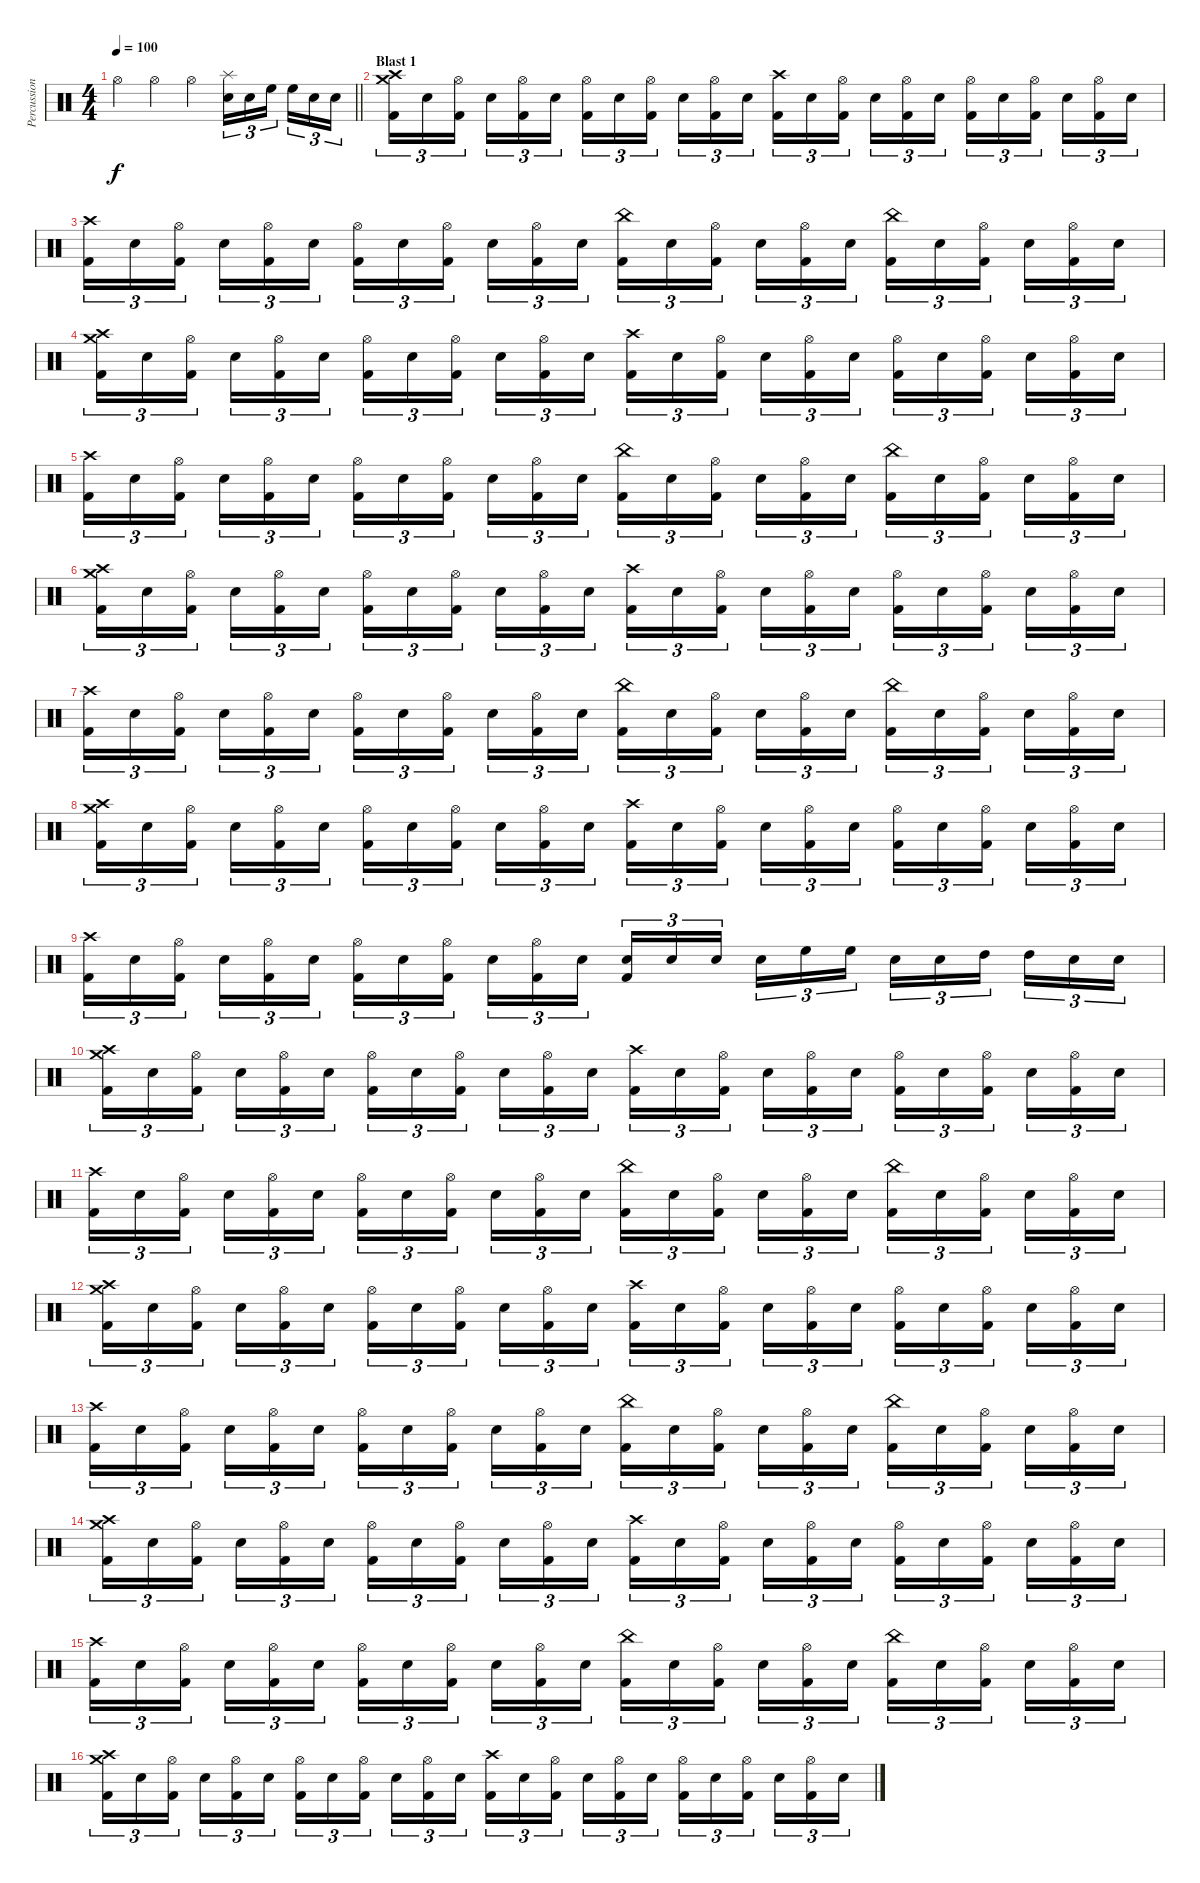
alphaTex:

\track ("Percussion" "Percussion") {instrument percussion}
\staff {score}
\articulation defaults
\ts (4 4)
\tempo 100
\clef neutral
\barLineRight lightlight
\ks c "Hi-Hat (open)".4{dy f} "Hi-Hat (open)".4 "Hi-Hat (open)".4
("Splash (hit)" "Electric Snare (hit)").16{tu (3 2)} "Electric Snare (hit)".16{tu (3 2)} "High Floor Tom (hit)".16{tu (3 2) beam splitsecondary} "High Floor Tom (hit)".16{tu (3 2)} "Electric Snare (hit)".16{tu (3 2)} "Electric Snare (hit)".16{tu (3 2)} |
\section ("" "Blast 1")
("Crash medium (hit)" "Crash high (hit)" "Kick (hit) 2").16{tu (3 2)} "Electric Snare (hit)".16{tu (3 2)} ("Hi-Hat (open)" "Kick (hit) 2").16{tu (3 2) beam splitsecondary} "Electric Snare (hit)".16{tu (3 2)} ("Hi-Hat (open)" "Kick (hit) 2").16{tu (3 2)} "Electric Snare (hit)".16{tu (3 2)} ("Hi-Hat (open)" "Kick (hit) 2").16{tu (3 2)} "Electric Snare (hit)".16{tu (3 2)} ("Hi-Hat (open)" "Kick (hit) 2").16{tu (3 2) beam splitsecondary} "Electric Snare (hit)".16{tu (3 2)} ("Hi-Hat (open)" "Kick (hit) 2").16{tu (3 2)} "Electric Snare (hit)".16{tu (3 2)} ("Crash high (hit)" "Kick (hit) 2").16{tu (3 2)} "Electric Snare (hit)".16{tu (3 2)} ("Hi-Hat (open)" "Kick (hit) 2").16{tu (3 2) beam splitsecondary} "Electric Snare (hit)".16{tu (3 2)} ("Hi-Hat (open)" "Kick (hit) 2").16{tu (3 2)} "Electric Snare (hit)".16{tu (3 2)} ("Hi-Hat (open)" "Kick (hit) 2").16{tu (3 2)} "Electric Snare (hit)".16{tu (3 2)} ("Hi-Hat (open)" "Kick (hit) 2").16{tu (3 2) beam splitsecondary} "Electric Snare (hit)".16{tu (3 2)} ("Hi-Hat (open)" "Kick (hit) 2").16{tu (3 2)} "Electric Snare (hit)".16{tu (3 2)} |
("Crash high (hit)" "Kick (hit) 2").16{tu (3 2)} "Electric Snare (hit)".16{tu (3 2)} ("Hi-Hat (open)" "Kick (hit) 2").16{tu (3 2) beam splitsecondary} "Electric Snare (hit)".16{tu (3 2)} ("Hi-Hat (open)" "Kick (hit) 2").16{tu (3 2)} "Electric Snare (hit)".16{tu (3 2)} ("Hi-Hat (open)" "Kick (hit) 2").16{tu (3 2)} "Electric Snare (hit)".16{tu (3 2)} ("Hi-Hat (open)" "Kick (hit) 2").16{tu (3 2) beam splitsecondary} "Electric Snare (hit)".16{tu (3 2)} ("Hi-Hat (open)" "Kick (hit) 2").16{tu (3 2)} "Electric Snare (hit)".16{tu (3 2)} ("China (hit)" "Kick (hit) 2").16{tu (3 2)} "Electric Snare (hit)".16{tu (3 2)} ("Hi-Hat (open)" "Kick (hit) 2").16{tu (3 2) beam splitsecondary} "Electric Snare (hit)".16{tu (3 2)} ("Hi-Hat (open)" "Kick (hit) 2").16{tu (3 2)} "Electric Snare (hit)".16{tu (3 2)} ("China (hit)" "Kick (hit) 2").16{tu (3 2)} "Electric Snare (hit)".16{tu (3 2)} ("Hi-Hat (open)" "Kick (hit) 2").16{tu (3 2) beam splitsecondary} "Electric Snare (hit)".16{tu (3 2)} ("Hi-Hat (open)" "Kick (hit) 2").16{tu (3 2)} "Electric Snare (hit)".16{tu (3 2)} |
("Crash medium (hit)" "Crash high (hit)" "Kick (hit) 2").16{tu (3 2)} "Electric Snare (hit)".16{tu (3 2)} ("Hi-Hat (open)" "Kick (hit) 2").16{tu (3 2) beam splitsecondary} "Electric Snare (hit)".16{tu (3 2)} ("Hi-Hat (open)" "Kick (hit) 2").16{tu (3 2)} "Electric Snare (hit)".16{tu (3 2)} ("Hi-Hat (open)" "Kick (hit) 2").16{tu (3 2)} "Electric Snare (hit)".16{tu (3 2)} ("Hi-Hat (open)" "Kick (hit) 2").16{tu (3 2) beam splitsecondary} "Electric Snare (hit)".16{tu (3 2)} ("Hi-Hat (open)" "Kick (hit) 2").16{tu (3 2)} "Electric Snare (hit)".16{tu (3 2)} ("Crash high (hit)" "Kick (hit) 2").16{tu (3 2)} "Electric Snare (hit)".16{tu (3 2)} ("Hi-Hat (open)" "Kick (hit) 2").16{tu (3 2) beam splitsecondary} "Electric Snare (hit)".16{tu (3 2)} ("Hi-Hat (open)" "Kick (hit) 2").16{tu (3 2)} "Electric Snare (hit)".16{tu (3 2)} ("Hi-Hat (open)" "Kick (hit) 2").16{tu (3 2)} "Electric Snare (hit)".16{tu (3 2)} ("Hi-Hat (open)" "Kick (hit) 2").16{tu (3 2) beam splitsecondary} "Electric Snare (hit)".16{tu (3 2)} ("Hi-Hat (open)" "Kick (hit) 2").16{tu (3 2)} "Electric Snare (hit)".16{tu (3 2)} |
("Crash high (hit)" "Kick (hit) 2").16{tu (3 2)} "Electric Snare (hit)".16{tu (3 2)} ("Hi-Hat (open)" "Kick (hit) 2").16{tu (3 2) beam splitsecondary} "Electric Snare (hit)".16{tu (3 2)} ("Hi-Hat (open)" "Kick (hit) 2").16{tu (3 2)} "Electric Snare (hit)".16{tu (3 2)} ("Hi-Hat (open)" "Kick (hit) 2").16{tu (3 2)} "Electric Snare (hit)".16{tu (3 2)} ("Hi-Hat (open)" "Kick (hit) 2").16{tu (3 2) beam splitsecondary} "Electric Snare (hit)".16{tu (3 2)} ("Hi-Hat (open)" "Kick (hit) 2").16{tu (3 2)} "Electric Snare (hit)".16{tu (3 2)} ("China (hit)" "Kick (hit) 2").16{tu (3 2)} "Electric Snare (hit)".16{tu (3 2)} ("Hi-Hat (open)" "Kick (hit) 2").16{tu (3 2) beam splitsecondary} "Electric Snare (hit)".16{tu (3 2)} ("Hi-Hat (open)" "Kick (hit) 2").16{tu (3 2)} "Electric Snare (hit)".16{tu (3 2)} ("China (hit)" "Kick (hit) 2").16{tu (3 2)} "Electric Snare (hit)".16{tu (3 2)} ("Hi-Hat (open)" "Kick (hit) 2").16{tu (3 2) beam splitsecondary} "Electric Snare (hit)".16{tu (3 2)} ("Hi-Hat (open)" "Kick (hit) 2").16{tu (3 2)} "Electric Snare (hit)".16{tu (3 2)} |
("Crash medium (hit)" "Crash high (hit)" "Kick (hit) 2").16{tu (3 2)} "Electric Snare (hit)".16{tu (3 2)} ("Hi-Hat (open)" "Kick (hit) 2").16{tu (3 2) beam splitsecondary} "Electric Snare (hit)".16{tu (3 2)} ("Hi-Hat (open)" "Kick (hit) 2").16{tu (3 2)} "Electric Snare (hit)".16{tu (3 2)} ("Hi-Hat (open)" "Kick (hit) 2").16{tu (3 2)} "Electric Snare (hit)".16{tu (3 2)} ("Hi-Hat (open)" "Kick (hit) 2").16{tu (3 2) beam splitsecondary} "Electric Snare (hit)".16{tu (3 2)} ("Hi-Hat (open)" "Kick (hit) 2").16{tu (3 2)} "Electric Snare (hit)".16{tu (3 2)} ("Crash high (hit)" "Kick (hit) 2").16{tu (3 2)} "Electric Snare (hit)".16{tu (3 2)} ("Hi-Hat (open)" "Kick (hit) 2").16{tu (3 2) beam splitsecondary} "Electric Snare (hit)".16{tu (3 2)} ("Hi-Hat (open)" "Kick (hit) 2").16{tu (3 2)} "Electric Snare (hit)".16{tu (3 2)} ("Hi-Hat (open)" "Kick (hit) 2").16{tu (3 2)} "Electric Snare (hit)".16{tu (3 2)} ("Hi-Hat (open)" "Kick (hit) 2").16{tu (3 2) beam splitsecondary} "Electric Snare (hit)".16{tu (3 2)} ("Hi-Hat (open)" "Kick (hit) 2").16{tu (3 2)} "Electric Snare (hit)".16{tu (3 2)} |
("Crash high (hit)" "Kick (hit) 2").16{tu (3 2)} "Electric Snare (hit)".16{tu (3 2)} ("Hi-Hat (open)" "Kick (hit) 2").16{tu (3 2) beam splitsecondary} "Electric Snare (hit)".16{tu (3 2)} ("Hi-Hat (open)" "Kick (hit) 2").16{tu (3 2)} "Electric Snare (hit)".16{tu (3 2)} ("Hi-Hat (open)" "Kick (hit) 2").16{tu (3 2)} "Electric Snare (hit)".16{tu (3 2)} ("Hi-Hat (open)" "Kick (hit) 2").16{tu (3 2) beam splitsecondary} "Electric Snare (hit)".16{tu (3 2)} ("Hi-Hat (open)" "Kick (hit) 2").16{tu (3 2)} "Electric Snare (hit)".16{tu (3 2)} ("China (hit)" "Kick (hit) 2").16{tu (3 2)} "Electric Snare (hit)".16{tu (3 2)} ("Hi-Hat (open)" "Kick (hit) 2").16{tu (3 2) beam splitsecondary} "Electric Snare (hit)".16{tu (3 2)} ("Hi-Hat (open)" "Kick (hit) 2").16{tu (3 2)} "Electric Snare (hit)".16{tu (3 2)} ("China (hit)" "Kick (hit) 2").16{tu (3 2)} "Electric Snare (hit)".16{tu (3 2)} ("Hi-Hat (open)" "Kick (hit) 2").16{tu (3 2) beam splitsecondary} "Electric Snare (hit)".16{tu (3 2)} ("Hi-Hat (open)" "Kick (hit) 2").16{tu (3 2)} "Electric Snare (hit)".16{tu (3 2)} |
("Crash medium (hit)" "Crash high (hit)" "Kick (hit) 2").16{tu (3 2)} "Electric Snare (hit)".16{tu (3 2)} ("Hi-Hat (open)" "Kick (hit) 2").16{tu (3 2) beam splitsecondary} "Electric Snare (hit)".16{tu (3 2)} ("Hi-Hat (open)" "Kick (hit) 2").16{tu (3 2)} "Electric Snare (hit)".16{tu (3 2)} ("Hi-Hat (open)" "Kick (hit) 2").16{tu (3 2)} "Electric Snare (hit)".16{tu (3 2)} ("Hi-Hat (open)" "Kick (hit) 2").16{tu (3 2) beam splitsecondary} "Electric Snare (hit)".16{tu (3 2)} ("Hi-Hat (open)" "Kick (hit) 2").16{tu (3 2)} "Electric Snare (hit)".16{tu (3 2)} ("Crash high (hit)" "Kick (hit) 2").16{tu (3 2)} "Electric Snare (hit)".16{tu (3 2)} ("Hi-Hat (open)" "Kick (hit) 2").16{tu (3 2) beam splitsecondary} "Electric Snare (hit)".16{tu (3 2)} ("Hi-Hat (open)" "Kick (hit) 2").16{tu (3 2)} "Electric Snare (hit)".16{tu (3 2)} ("Hi-Hat (open)" "Kick (hit) 2").16{tu (3 2)} "Electric Snare (hit)".16{tu (3 2)} ("Hi-Hat (open)" "Kick (hit) 2").16{tu (3 2) beam splitsecondary} "Electric Snare (hit)".16{tu (3 2)} ("Hi-Hat (open)" "Kick (hit) 2").16{tu (3 2)} "Electric Snare (hit)".16{tu (3 2)} |
("Crash high (hit)" "Kick (hit) 2").16{tu (3 2)} "Electric Snare (hit)".16{tu (3 2)} ("Hi-Hat (open)" "Kick (hit) 2").16{tu (3 2) beam splitsecondary} "Electric Snare (hit)".16{tu (3 2)} ("Hi-Hat (open)" "Kick (hit) 2").16{tu (3 2)} "Electric Snare (hit)".16{tu (3 2)} ("Hi-Hat (open)" "Kick (hit) 2").16{tu (3 2)} "Electric Snare (hit)".16{tu (3 2)} ("Hi-Hat (open)" "Kick (hit) 2").16{tu (3 2) beam splitsecondary} "Electric Snare (hit)".16{tu (3 2)} ("Hi-Hat (open)" "Kick (hit) 2").16{tu (3 2)} "Electric Snare (hit)".16{tu (3 2)} ("Electric Snare (hit)" "Kick (hit) 2").16{tu (3 2)} "Electric Snare (hit)".16{tu (3 2)} "Electric Snare (hit)".16{tu (3 2) beam splitsecondary} "Electric Snare (hit)".16{tu (3 2)} "High Floor Tom (hit)".16{tu (3 2)} "High Floor Tom (hit)".16{tu (3 2)} "Electric Snare (hit)".16{tu (3 2)} "Electric Snare (hit)".16{tu (3 2)} "High Tom (hit)".16{tu (3 2) beam splitsecondary} "High Tom (hit)".16{tu (3 2)} "Electric Snare (hit)".16{tu (3 2)} "Electric Snare (hit)".16{tu (3 2)} |
("Crash medium (hit)" "Crash high (hit)" "Kick (hit) 2").16{tu (3 2)} "Electric Snare (hit)".16{tu (3 2)} ("Hi-Hat (open)" "Kick (hit) 2").16{tu (3 2) beam splitsecondary} "Electric Snare (hit)".16{tu (3 2)} ("Hi-Hat (open)" "Kick (hit) 2").16{tu (3 2)} "Electric Snare (hit)".16{tu (3 2)} ("Hi-Hat (open)" "Kick (hit) 2").16{tu (3 2)} "Electric Snare (hit)".16{tu (3 2)} ("Hi-Hat (open)" "Kick (hit) 2").16{tu (3 2) beam splitsecondary} "Electric Snare (hit)".16{tu (3 2)} ("Hi-Hat (open)" "Kick (hit) 2").16{tu (3 2)} "Electric Snare (hit)".16{tu (3 2)} ("Crash high (hit)" "Kick (hit) 2").16{tu (3 2)} "Electric Snare (hit)".16{tu (3 2)} ("Hi-Hat (open)" "Kick (hit) 2").16{tu (3 2) beam splitsecondary} "Electric Snare (hit)".16{tu (3 2)} ("Hi-Hat (open)" "Kick (hit) 2").16{tu (3 2)} "Electric Snare (hit)".16{tu (3 2)} ("Hi-Hat (open)" "Kick (hit) 2").16{tu (3 2)} "Electric Snare (hit)".16{tu (3 2)} ("Hi-Hat (open)" "Kick (hit) 2").16{tu (3 2) beam splitsecondary} "Electric Snare (hit)".16{tu (3 2)} ("Hi-Hat (open)" "Kick (hit) 2").16{tu (3 2)} "Electric Snare (hit)".16{tu (3 2)} |
("Crash high (hit)" "Kick (hit) 2").16{tu (3 2)} "Electric Snare (hit)".16{tu (3 2)} ("Hi-Hat (open)" "Kick (hit) 2").16{tu (3 2) beam splitsecondary} "Electric Snare (hit)".16{tu (3 2)} ("Hi-Hat (open)" "Kick (hit) 2").16{tu (3 2)} "Electric Snare (hit)".16{tu (3 2)} ("Hi-Hat (open)" "Kick (hit) 2").16{tu (3 2)} "Electric Snare (hit)".16{tu (3 2)} ("Hi-Hat (open)" "Kick (hit) 2").16{tu (3 2) beam splitsecondary} "Electric Snare (hit)".16{tu (3 2)} ("Hi-Hat (open)" "Kick (hit) 2").16{tu (3 2)} "Electric Snare (hit)".16{tu (3 2)} ("China (hit)" "Kick (hit) 2").16{tu (3 2)} "Electric Snare (hit)".16{tu (3 2)} ("Hi-Hat (open)" "Kick (hit) 2").16{tu (3 2) beam splitsecondary} "Electric Snare (hit)".16{tu (3 2)} ("Hi-Hat (open)" "Kick (hit) 2").16{tu (3 2)} "Electric Snare (hit)".16{tu (3 2)} ("China (hit)" "Kick (hit) 2").16{tu (3 2)} "Electric Snare (hit)".16{tu (3 2)} ("Hi-Hat (open)" "Kick (hit) 2").16{tu (3 2) beam splitsecondary} "Electric Snare (hit)".16{tu (3 2)} ("Hi-Hat (open)" "Kick (hit) 2").16{tu (3 2)} "Electric Snare (hit)".16{tu (3 2)} |
("Crash medium (hit)" "Crash high (hit)" "Kick (hit) 2").16{tu (3 2)} "Electric Snare (hit)".16{tu (3 2)} ("Hi-Hat (open)" "Kick (hit) 2").16{tu (3 2) beam splitsecondary} "Electric Snare (hit)".16{tu (3 2)} ("Hi-Hat (open)" "Kick (hit) 2").16{tu (3 2)} "Electric Snare (hit)".16{tu (3 2)} ("Hi-Hat (open)" "Kick (hit) 2").16{tu (3 2)} "Electric Snare (hit)".16{tu (3 2)} ("Hi-Hat (open)" "Kick (hit) 2").16{tu (3 2) beam splitsecondary} "Electric Snare (hit)".16{tu (3 2)} ("Hi-Hat (open)" "Kick (hit) 2").16{tu (3 2)} "Electric Snare (hit)".16{tu (3 2)} ("Crash high (hit)" "Kick (hit) 2").16{tu (3 2)} "Electric Snare (hit)".16{tu (3 2)} ("Hi-Hat (open)" "Kick (hit) 2").16{tu (3 2) beam splitsecondary} "Electric Snare (hit)".16{tu (3 2)} ("Hi-Hat (open)" "Kick (hit) 2").16{tu (3 2)} "Electric Snare (hit)".16{tu (3 2)} ("Hi-Hat (open)" "Kick (hit) 2").16{tu (3 2)} "Electric Snare (hit)".16{tu (3 2)} ("Hi-Hat (open)" "Kick (hit) 2").16{tu (3 2) beam splitsecondary} "Electric Snare (hit)".16{tu (3 2)} ("Hi-Hat (open)" "Kick (hit) 2").16{tu (3 2)} "Electric Snare (hit)".16{tu (3 2)} |
("Crash high (hit)" "Kick (hit) 2").16{tu (3 2)} "Electric Snare (hit)".16{tu (3 2)} ("Hi-Hat (open)" "Kick (hit) 2").16{tu (3 2) beam splitsecondary} "Electric Snare (hit)".16{tu (3 2)} ("Hi-Hat (open)" "Kick (hit) 2").16{tu (3 2)} "Electric Snare (hit)".16{tu (3 2)} ("Hi-Hat (open)" "Kick (hit) 2").16{tu (3 2)} "Electric Snare (hit)".16{tu (3 2)} ("Hi-Hat (open)" "Kick (hit) 2").16{tu (3 2) beam splitsecondary} "Electric Snare (hit)".16{tu (3 2)} ("Hi-Hat (open)" "Kick (hit) 2").16{tu (3 2)} "Electric Snare (hit)".16{tu (3 2)} ("China (hit)" "Kick (hit) 2").16{tu (3 2)} "Electric Snare (hit)".16{tu (3 2)} ("Hi-Hat (open)" "Kick (hit) 2").16{tu (3 2) beam splitsecondary} "Electric Snare (hit)".16{tu (3 2)} ("Hi-Hat (open)" "Kick (hit) 2").16{tu (3 2)} "Electric Snare (hit)".16{tu (3 2)} ("China (hit)" "Kick (hit) 2").16{tu (3 2)} "Electric Snare (hit)".16{tu (3 2)} ("Hi-Hat (open)" "Kick (hit) 2").16{tu (3 2) beam splitsecondary} "Electric Snare (hit)".16{tu (3 2)} ("Hi-Hat (open)" "Kick (hit) 2").16{tu (3 2)} "Electric Snare (hit)".16{tu (3 2)} |
("Crash medium (hit)" "Crash high (hit)" "Kick (hit) 2").16{tu (3 2)} "Electric Snare (hit)".16{tu (3 2)} ("Hi-Hat (open)" "Kick (hit) 2").16{tu (3 2) beam splitsecondary} "Electric Snare (hit)".16{tu (3 2)} ("Hi-Hat (open)" "Kick (hit) 2").16{tu (3 2)} "Electric Snare (hit)".16{tu (3 2)} ("Hi-Hat (open)" "Kick (hit) 2").16{tu (3 2)} "Electric Snare (hit)".16{tu (3 2)} ("Hi-Hat (open)" "Kick (hit) 2").16{tu (3 2) beam splitsecondary} "Electric Snare (hit)".16{tu (3 2)} ("Hi-Hat (open)" "Kick (hit) 2").16{tu (3 2)} "Electric Snare (hit)".16{tu (3 2)} ("Crash high (hit)" "Kick (hit) 2").16{tu (3 2)} "Electric Snare (hit)".16{tu (3 2)} ("Hi-Hat (open)" "Kick (hit) 2").16{tu (3 2) beam splitsecondary} "Electric Snare (hit)".16{tu (3 2)} ("Hi-Hat (open)" "Kick (hit) 2").16{tu (3 2)} "Electric Snare (hit)".16{tu (3 2)} ("Hi-Hat (open)" "Kick (hit) 2").16{tu (3 2)} "Electric Snare (hit)".16{tu (3 2)} ("Hi-Hat (open)" "Kick (hit) 2").16{tu (3 2) beam splitsecondary} "Electric Snare (hit)".16{tu (3 2)} ("Hi-Hat (open)" "Kick (hit) 2").16{tu (3 2)} "Electric Snare (hit)".16{tu (3 2)} |
("Crash high (hit)" "Kick (hit) 2").16{tu (3 2)} "Electric Snare (hit)".16{tu (3 2)} ("Hi-Hat (open)" "Kick (hit) 2").16{tu (3 2) beam splitsecondary} "Electric Snare (hit)".16{tu (3 2)} ("Hi-Hat (open)" "Kick (hit) 2").16{tu (3 2)} "Electric Snare (hit)".16{tu (3 2)} ("Hi-Hat (open)" "Kick (hit) 2").16{tu (3 2)} "Electric Snare (hit)".16{tu (3 2)} ("Hi-Hat (open)" "Kick (hit) 2").16{tu (3 2) beam splitsecondary} "Electric Snare (hit)".16{tu (3 2)} ("Hi-Hat (open)" "Kick (hit) 2").16{tu (3 2)} "Electric Snare (hit)".16{tu (3 2)} ("China (hit)" "Kick (hit) 2").16{tu (3 2)} "Electric Snare (hit)".16{tu (3 2)} ("Hi-Hat (open)" "Kick (hit) 2").16{tu (3 2) beam splitsecondary} "Electric Snare (hit)".16{tu (3 2)} ("Hi-Hat (open)" "Kick (hit) 2").16{tu (3 2)} "Electric Snare (hit)".16{tu (3 2)} ("China (hit)" "Kick (hit) 2").16{tu (3 2)} "Electric Snare (hit)".16{tu (3 2)} ("Hi-Hat (open)" "Kick (hit) 2").16{tu (3 2) beam splitsecondary} "Electric Snare (hit)".16{tu (3 2)} ("Hi-Hat (open)" "Kick (hit) 2").16{tu (3 2)} "Electric Snare (hit)".16{tu (3 2)} |
("Crash medium (hit)" "Crash high (hit)" "Kick (hit) 2").16{tu (3 2)} "Electric Snare (hit)".16{tu (3 2)} ("Hi-Hat (open)" "Kick (hit) 2").16{tu (3 2) beam splitsecondary} "Electric Snare (hit)".16{tu (3 2)} ("Hi-Hat (open)" "Kick (hit) 2").16{tu (3 2)} "Electric Snare (hit)".16{tu (3 2)} ("Hi-Hat (open)" "Kick (hit) 2").16{tu (3 2)} "Electric Snare (hit)".16{tu (3 2)} ("Hi-Hat (open)" "Kick (hit) 2").16{tu (3 2) beam splitsecondary} "Electric Snare (hit)".16{tu (3 2)} ("Hi-Hat (open)" "Kick (hit) 2").16{tu (3 2)} "Electric Snare (hit)".16{tu (3 2)} ("Crash high (hit)" "Kick (hit) 2").16{tu (3 2)} "Electric Snare (hit)".16{tu (3 2)} ("Hi-Hat (open)" "Kick (hit) 2").16{tu (3 2) beam splitsecondary} "Electric Snare (hit)".16{tu (3 2)} ("Hi-Hat (open)" "Kick (hit) 2").16{tu (3 2)} "Electric Snare (hit)".16{tu (3 2)} ("Hi-Hat (open)" "Kick (hit) 2").16{tu (3 2)} "Electric Snare (hit)".16{tu (3 2)} ("Hi-Hat (open)" "Kick (hit) 2").16{tu (3 2) beam splitsecondary} "Electric Snare (hit)".16{tu (3 2)} ("Hi-Hat (open)" "Kick (hit) 2").16{tu (3 2)} "Electric Snare (hit)".16{tu (3 2)}
